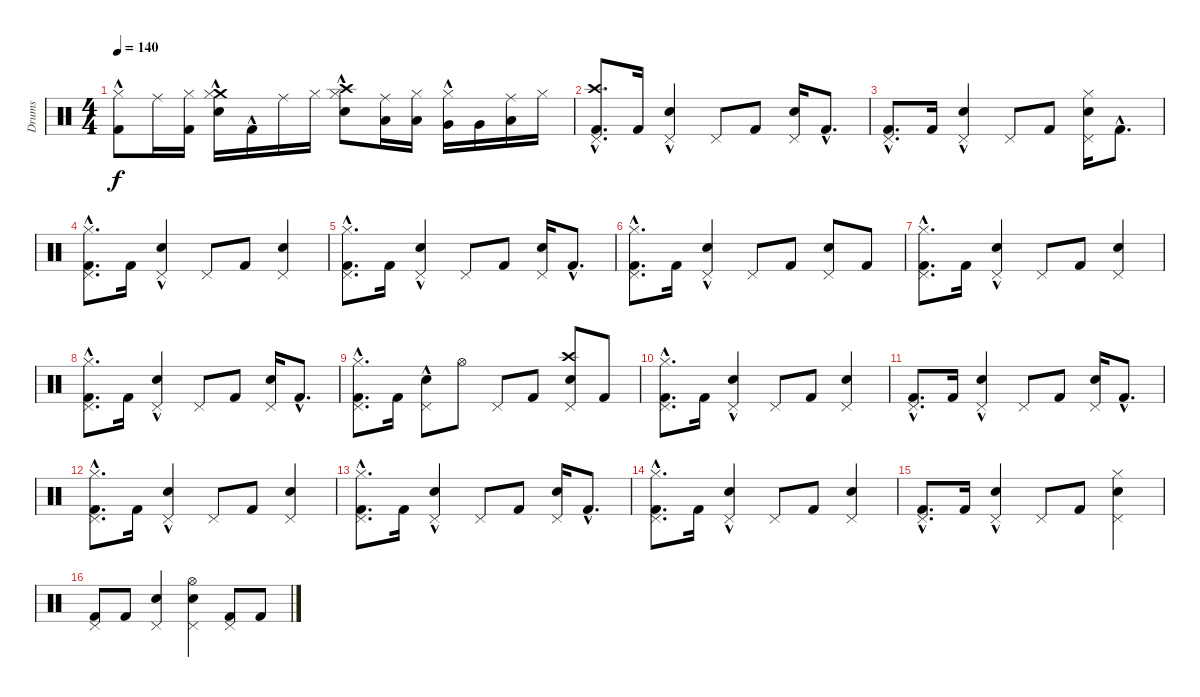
\track ("Drums" "Drums") {instrument percussion}
\staff {score}
\articulation defaults
\ts (4 4)
\tempo 140
\clef neutral
\ks c
("Hi-Hat (closed)"{hac} "Kick (hit) 2"{hac}).8{dy f} "Ride (middle)".16 ("Hi-Hat (closed)" "Kick (hit) 2").16 ("Crash medium (hit)" "Electric Snare (hit)" "Hi-Hat (closed)"{hac}).16 "Kick (hit) 2"{hac}.16 "Ride (middle)".16 "Hi-Hat (closed)".16 ("Electric Snare (hit)" "Hi-Hat (closed)"{hac} "Crash high (hit)").8 ("Low Tom (hit)" "Ride (middle)").16 ("Low Tom (hit)" "Hi-Hat (closed)").16 ("Very Low Tom (hit)" "Hi-Hat (closed)"{hac}).16 "Very Low Tom (hit)".16 ("Low Floor Tom (hit)" "Ride (middle)").16 "Hi-Hat (closed)".16 |
("Kick (hit) 2"{hac} "Crash high (hit)" "Pedal Hi-Hat (hit)").8{d} "Kick (hit) 2".16 ("Pedal Hi-Hat (hit)" "Electric Snare (hit)"{hac}).4 "Pedal Hi-Hat (hit)".8 "Kick (hit) 2".8 ("Pedal Hi-Hat (hit)" "Electric Snare (hit)").16 "Kick (hit) 2"{hac}.8{d} |
("Pedal Hi-Hat (hit)" "Kick (hit) 2"{hac}).8{d} "Kick (hit) 2".16 ("Electric Snare (hit)"{hac} "Pedal Hi-Hat (hit)").4 "Pedal Hi-Hat (hit)".8 "Kick (hit) 2".8 ("Pedal Hi-Hat (hit)" "Electric Snare (hit)" "Hi-Hat (closed)").16 "Kick (hit) 2"{hac}.8{d} |
("Kick (hit) 2"{hac} "Pedal Hi-Hat (hit)" "Hi-Hat (closed)").8{d} "Kick (hit) 2".16 ("Pedal Hi-Hat (hit)" "Electric Snare (hit)"{hac}).4 "Pedal Hi-Hat (hit)".8 "Kick (hit) 2".8 ("Electric Snare (hit)" "Pedal Hi-Hat (hit)").4 |
("Kick (hit) 2"{hac} "Pedal Hi-Hat (hit)" "Hi-Hat (closed)").8{d} "Kick (hit) 2".16 ("Electric Snare (hit)"{hac} "Pedal Hi-Hat (hit)").4 "Pedal Hi-Hat (hit)".8 "Kick (hit) 2".8 ("Pedal Hi-Hat (hit)" "Electric Snare (hit)").16 "Kick (hit) 2"{hac}.8{d} |
("Kick (hit) 2"{hac} "Pedal Hi-Hat (hit)" "Hi-Hat (closed)").8{d} "Kick (hit) 2".16 ("Electric Snare (hit)"{hac} "Pedal Hi-Hat (hit)").4 "Pedal Hi-Hat (hit)".8 "Kick (hit) 2".8 ("Pedal Hi-Hat (hit)" "Electric Snare (hit)").8 "Kick (hit) 2".8 |
("Hi-Hat (closed)" "Kick (hit) 2"{hac} "Pedal Hi-Hat (hit)").8{d} "Kick (hit) 2".16 ("Pedal Hi-Hat (hit)" "Electric Snare (hit)"{hac}).4 "Pedal Hi-Hat (hit)".8 "Kick (hit) 2".8 ("Electric Snare (hit)" "Pedal Hi-Hat (hit)").4 |
("Hi-Hat (closed)" "Pedal Hi-Hat (hit)" "Kick (hit) 2"{hac}).8{d} "Kick (hit) 2".16 ("Electric Snare (hit)"{hac} "Pedal Hi-Hat (hit)").4 "Pedal Hi-Hat (hit)".8 "Kick (hit) 2".8 ("Electric Snare (hit)" "Pedal Hi-Hat (hit)").16 "Kick (hit) 2"{hac}.8{d} |
("Pedal Hi-Hat (hit)" "Hi-Hat (closed)" "Kick (hit) 2"{hac}).8{d} "Kick (hit) 2".16 ("Pedal Hi-Hat (hit)" "Electric Snare (hit)"{hac}).8 "Hi-Hat (open)".8 "Pedal Hi-Hat (hit)".8 "Kick (hit) 2".8 ("Pedal Hi-Hat (hit)" "Crash high (hit)" "Electric Snare (hit)").8 "Kick (hit) 2".8 |
("Kick (hit) 2"{hac} "Pedal Hi-Hat (hit)" "Hi-Hat (closed)").8{d} "Kick (hit) 2".16 ("Pedal Hi-Hat (hit)" "Electric Snare (hit)"{hac}).4 "Pedal Hi-Hat (hit)".8 "Kick (hit) 2".8 ("Pedal Hi-Hat (hit)" "Electric Snare (hit)").4 |
("Kick (hit) 2"{hac} "Pedal Hi-Hat (hit)").8{d} "Kick (hit) 2".16 ("Electric Snare (hit)"{hac} "Pedal Hi-Hat (hit)").4 "Pedal Hi-Hat (hit)".8 "Kick (hit) 2".8 ("Pedal Hi-Hat (hit)" "Electric Snare (hit)").16 "Kick (hit) 2"{hac}.8{d} |
("Kick (hit) 2"{hac} "Pedal Hi-Hat (hit)" "Hi-Hat (closed)").8{d} "Kick (hit) 2".16 ("Pedal Hi-Hat (hit)" "Electric Snare (hit)"{hac}).4 "Pedal Hi-Hat (hit)".8 "Kick (hit) 2".8 ("Pedal Hi-Hat (hit)" "Electric Snare (hit)").4 |
("Kick (hit) 2"{hac} "Pedal Hi-Hat (hit)" "Hi-Hat (closed)").8{d} "Kick (hit) 2".16 ("Electric Snare (hit)"{hac} "Pedal Hi-Hat (hit)").4 "Pedal Hi-Hat (hit)".8 "Kick (hit) 2".8 ("Electric Snare (hit)" "Pedal Hi-Hat (hit)").16 "Kick (hit) 2"{hac}.8{d} |
("Kick (hit) 2"{hac} "Pedal Hi-Hat (hit)" "Hi-Hat (closed)").8{d} "Kick (hit) 2".16 ("Pedal Hi-Hat (hit)" "Electric Snare (hit)"{hac}).4 "Pedal Hi-Hat (hit)".8 "Kick (hit) 2".8 ("Pedal Hi-Hat (hit)" "Electric Snare (hit)").4 |
("Pedal Hi-Hat (hit)" "Kick (hit) 2"{hac}).8{d} "Kick (hit) 2".16 ("Pedal Hi-Hat (hit)" "Electric Snare (hit)"{hac}).4 "Pedal Hi-Hat (hit)".8 "Kick (hit) 2".8 ("Pedal Hi-Hat (hit)" "Electric Snare (hit)" "Hi-Hat (closed)").4 |
("Kick (hit) 2" "Pedal Hi-Hat (hit)").8 "Kick (hit) 2".8 ("Electric Snare (hit)" "Pedal Hi-Hat (hit)").4 ("Pedal Hi-Hat (hit)" "Electric Snare (hit)" "Hi-Hat (open)").4 ("Kick (hit) 2" "Pedal Hi-Hat (hit)").8 "Kick (hit) 2".8
